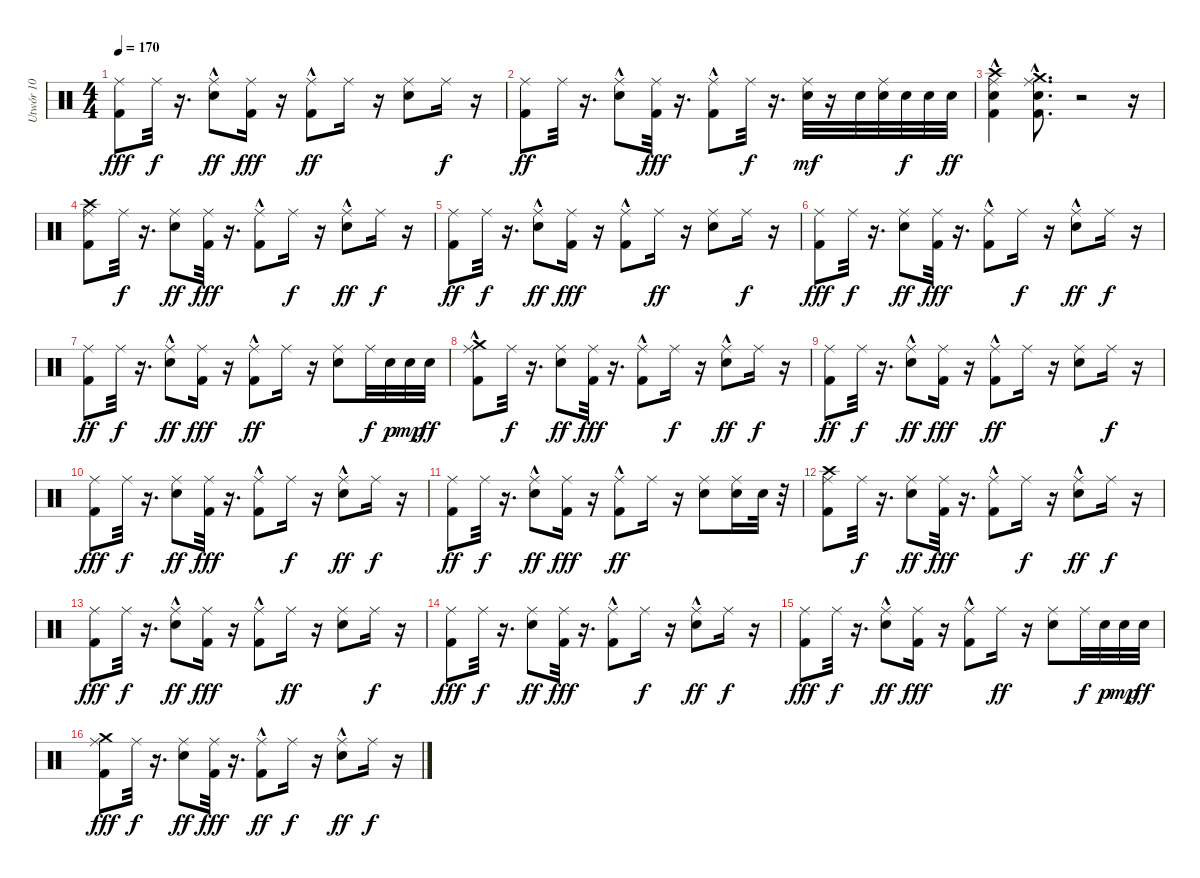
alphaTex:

\track ("Utwór 10" "Utwór 10") {instrument percussion}
\staff {score}
\articulation defaults
\ts (4 4)
\tempo 170
\clef neutral
\ks c
("Ride (middle)" "Kick (hit) 2").8{dy fff} "Ride (middle)".32{dy f} r.16{d} ("Snare (hit) 2"{hac} "Ride (middle)").8{dy ff} ("Kick (hit) 2" "Ride (middle)").16{dy fff} r.16 ("Kick (hit) 2"{hac} "Ride (middle)").8{dy ff} "Ride (middle)".16 r.16 ("Snare (hit) 2" "Ride (middle)").8 "Ride (middle)".16{dy f} r.16 |
("Kick (hit) 2" "Ride (middle)").8{dy ff} "Ride (middle)".32 r.16{d} ("Ride (middle)" "Snare (hit) 2"{hac}).8 ("Ride (middle)" "Kick (hit) 2").32{dy fff} r.16{d} ("Ride (middle)" "Kick (hit) 2"{hac}).8 "Ride (middle)".32{dy f} r.16{d} ("Ride (middle)" "Snare (hit) 2").32{dy mf} r.16 "Snare (hit) 2".32 ("Ride (middle)" "Snare (hit) 2").32 "Snare (hit) 2".32{dy f} "Snare (hit) 2".32 "Snare (hit) 2".32{dy ff} |
("Kick (hit) 2"{hac} "Crash high (hit)" "Snare (hit) 2" "Ride (middle)").4 ("Ride (middle)" "Kick (hit) 2"{hac} "Snare (hit) 2" "Crash medium (hit)").8{d} r.2 r.16 |
("Kick (hit) 2" "Crash high (hit)" "Ride (middle)").8 "Ride (middle)".32{dy f} r.16{d} ("Ride (middle)" "Snare (hit) 2").8{dy ff} ("Ride (middle)" "Kick (hit) 2").32{dy fff} r.16{d} ("Ride (middle)" "Kick (hit) 2"{hac}).8 "Ride (middle)".16{dy f} r.16 ("Snare (hit) 2"{hac} "Ride (middle)").8{dy ff} "Ride (middle)".16{dy f} r.16 |
("Kick (hit) 2" "Ride (middle)").8{dy ff} "Ride (middle)".32{dy f} r.16{d} ("Ride (middle)" "Snare (hit) 2"{hac}).8{dy ff} ("Kick (hit) 2" "Ride (middle)").16{dy fff} r.16 ("Ride (middle)" "Kick (hit) 2"{hac}).8 "Ride (middle)".16{dy ff} r.16 ("Snare (hit) 2" "Ride (middle)").8 "Ride (middle)".16{dy f} r.16 |
("Ride (middle)" "Kick (hit) 2").8{dy fff} "Ride (middle)".32{dy f} r.16{d} ("Ride (middle)" "Snare (hit) 2").8{dy ff} ("Ride (middle)" "Kick (hit) 2").32{dy fff} r.16{d} ("Ride (middle)" "Kick (hit) 2"{hac}).8 "Ride (middle)".16{dy f} r.16 ("Ride (middle)" "Snare (hit) 2"{hac}).8{dy ff} "Ride (middle)".16{dy f} r.16 |
("Kick (hit) 2" "Ride (middle)").8{dy ff} "Ride (middle)".32{dy f} r.16{d} ("Ride (middle)" "Snare (hit) 2"{hac}).8{dy ff} ("Kick (hit) 2" "Ride (middle)").16{dy fff} r.16 ("Kick (hit) 2"{hac} "Ride (middle)").8{dy ff} "Ride (middle)".16 r.16 ("Ride (middle)" "Snare (hit) 2").8 "Ride (middle)".32{dy f} "Snare (hit) 2".32{dy p} "Snare (hit) 2".32{dy mp} "Snare (hit) 2".32{dy ff} |
("Kick (hit) 2" "Ride (middle)" "Crash medium (hit)"{hac}).8 "Ride (middle)".32{dy f} r.16{d} ("Ride (middle)" "Snare (hit) 2").8{dy ff} ("Ride (middle)" "Kick (hit) 2").32{dy fff} r.16{d} ("Ride (middle)" "Kick (hit) 2"{hac}).8 "Ride (middle)".16{dy f} r.16 ("Snare (hit) 2"{hac} "Ride (middle)").8{dy ff} "Ride (middle)".16{dy f} r.16 |
("Kick (hit) 2" "Ride (middle)").8{dy ff} "Ride (middle)".32{dy f} r.16{d} ("Snare (hit) 2"{hac} "Ride (middle)").8{dy ff} ("Ride (middle)" "Kick (hit) 2").16{dy fff} r.16 ("Kick (hit) 2"{hac} "Ride (middle)").8{dy ff} "Ride (middle)".16 r.16 ("Ride (middle)" "Snare (hit) 2").8 "Ride (middle)".16{dy f} r.16 |
("Kick (hit) 2" "Ride (middle)").8{dy fff} "Ride (middle)".32{dy f} r.16{d} ("Snare (hit) 2" "Ride (middle)").8{dy ff} ("Ride (middle)" "Kick (hit) 2").32{dy fff} r.16{d} ("Ride (middle)" "Kick (hit) 2"{hac}).8 "Ride (middle)".16{dy f} r.16 ("Ride (middle)" "Snare (hit) 2"{hac}).8{dy ff} "Ride (middle)".16{dy f} r.16 |
("Kick (hit) 2" "Ride (middle)").8{dy ff} "Ride (middle)".32{dy f} r.16{d} ("Ride (middle)" "Snare (hit) 2"{hac}).8{dy ff} ("Ride (middle)" "Kick (hit) 2").16{dy fff} r.16 ("Kick (hit) 2"{hac} "Ride (middle)").8{dy ff} "Ride (middle)".16 r.16 ("Snare (hit) 2" "Ride (middle)").8 ("Ride (middle)" "Snare (hit) 2").16 "Snare (hit) 2".32 r.32 |
("Kick (hit) 2" "Crash high (hit)" "Ride (middle)").8 "Ride (middle)".32{dy f} r.16{d} ("Snare (hit) 2" "Ride (middle)").8{dy ff} ("Ride (middle)" "Kick (hit) 2").32{dy fff} r.16{d} ("Ride (middle)" "Kick (hit) 2"{hac}).8 "Ride (middle)".16{dy f} r.16 ("Snare (hit) 2"{hac} "Ride (middle)").8{dy ff} "Ride (middle)".16{dy f} r.16 |
("Ride (middle)" "Kick (hit) 2").8{dy fff} "Ride (middle)".32{dy f} r.16{d} ("Snare (hit) 2"{hac} "Ride (middle)").8{dy ff} ("Ride (middle)" "Kick (hit) 2").16{dy fff} r.16 ("Ride (middle)" "Kick (hit) 2"{hac}).8 "Ride (middle)".16{dy ff} r.16 ("Snare (hit) 2" "Ride (middle)").8 "Ride (middle)".16{dy f} r.16 |
("Ride (middle)" "Kick (hit) 2").8{dy fff} "Ride (middle)".32{dy f} r.16{d} ("Snare (hit) 2" "Ride (middle)").8{dy ff} ("Ride (middle)" "Kick (hit) 2").32{dy fff} r.16{d} ("Ride (middle)" "Kick (hit) 2"{hac}).8 "Ride (middle)".16{dy f} r.16 ("Ride (middle)" "Snare (hit) 2"{hac}).8{dy ff} "Ride (middle)".16{dy f} r.16 |
("Ride (middle)" "Kick (hit) 2").8{dy fff} "Ride (middle)".32{dy f} r.16{d} ("Snare (hit) 2"{hac} "Ride (middle)").8{dy ff} ("Kick (hit) 2" "Ride (middle)").16{dy fff} r.16 ("Ride (middle)" "Kick (hit) 2"{hac}).8 "Ride (middle)".16{dy ff} r.16 ("Ride (middle)" "Snare (hit) 2").8 "Ride (middle)".32{dy f} "Snare (hit) 2".32{dy p} "Snare (hit) 2".32{dy mp} "Snare (hit) 2".32{dy ff} |
("Kick (hit) 2" "Crash medium (hit)" "Ride (middle)").8{dy fff} "Ride (middle)".32{dy f} r.16{d} ("Ride (middle)" "Snare (hit) 2").8{dy ff} ("Ride (middle)" "Kick (hit) 2").32{dy fff} r.16{d} ("Kick (hit) 2"{hac} "Ride (middle)").8{dy ff} "Ride (middle)".16{dy f} r.16 ("Snare (hit) 2"{hac} "Ride (middle)").8{dy ff} "Ride (middle)".16{dy f} r.16
